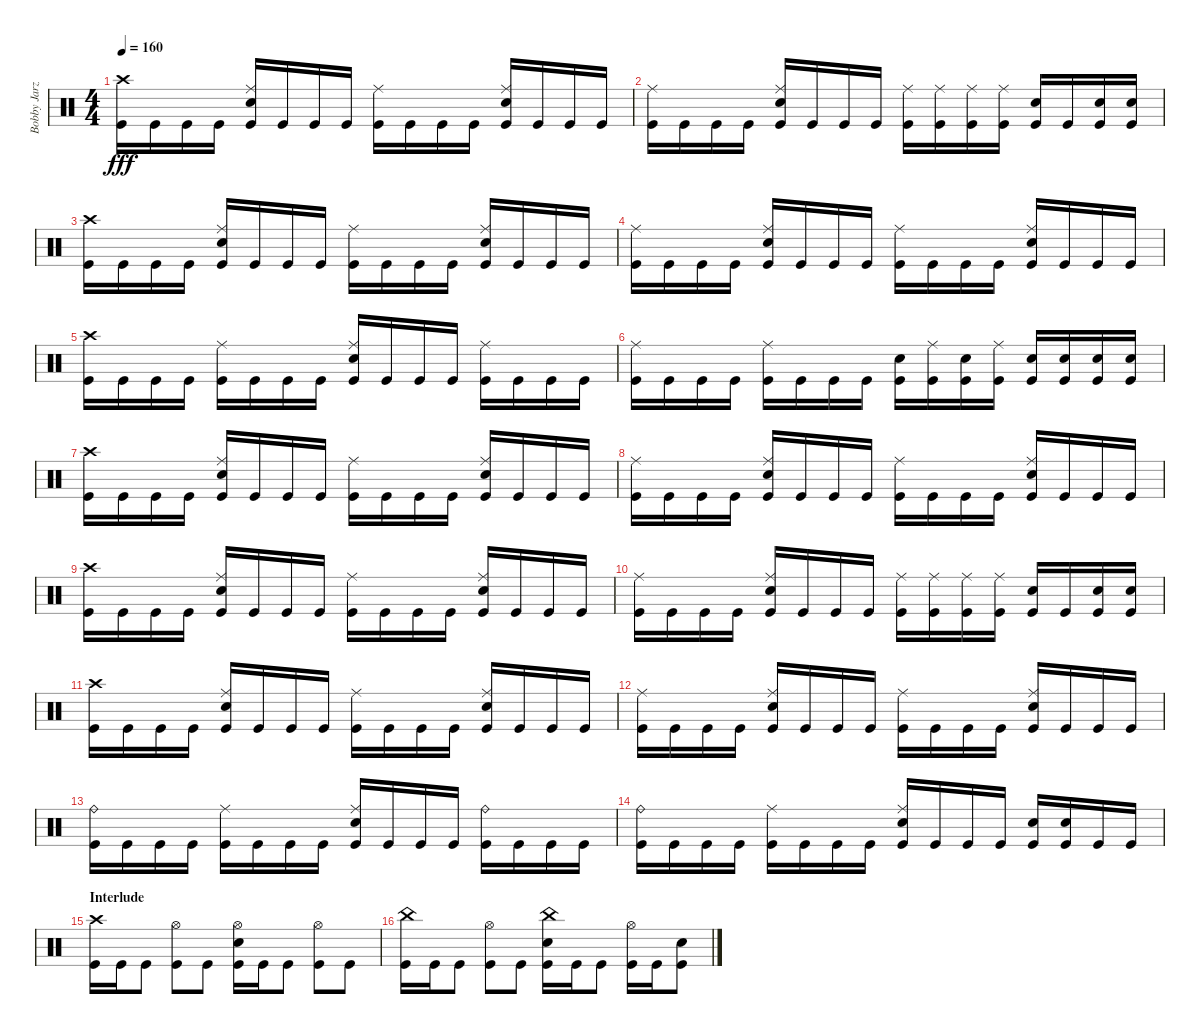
\track ("Bobby Jarzombek" "Bobby Jarz") {instrument percussion}
\staff {score}
\articulation defaults
\ts (4 4)
\tempo 160
\clef neutral
\ks c
("Crash high (hit)" "Kick (hit)").16{dy fff} "Kick (hit)".16 "Kick (hit)".16 "Kick (hit)".16 ("Ride (middle)" "Electric Snare (hit)" "Kick (hit)").16 "Kick (hit)".16 "Kick (hit)".16 "Kick (hit)".16 ("Ride (middle)" "Kick (hit)").16 "Kick (hit)".16 "Kick (hit)".16 "Kick (hit)".16 ("Ride (middle)" "Electric Snare (hit)" "Kick (hit)").16 "Kick (hit)".16 "Kick (hit)".16 "Kick (hit)".16 |
("Ride (middle)" "Kick (hit)").16 "Kick (hit)".16 "Kick (hit)".16 "Kick (hit)".16 ("Ride (middle)" "Electric Snare (hit)" "Kick (hit)").16 "Kick (hit)".16 "Kick (hit)".16 "Kick (hit)".16 ("Ride (middle)" "Kick (hit)").16 ("Ride (middle)" "Kick (hit)").16 ("Ride (middle)" "Kick (hit)").16 ("Ride (middle)" "Kick (hit)").16 ("Electric Snare (hit)" "Kick (hit)").16 "Kick (hit)".16 ("Electric Snare (hit)" "Kick (hit)").16 ("Electric Snare (hit)" "Kick (hit)").16 |
("Crash high (hit)" "Kick (hit)").16 "Kick (hit)".16 "Kick (hit)".16 "Kick (hit)".16 ("Ride (middle)" "Electric Snare (hit)" "Kick (hit)").16 "Kick (hit)".16 "Kick (hit)".16 "Kick (hit)".16 ("Ride (middle)" "Kick (hit)").16 "Kick (hit)".16 "Kick (hit)".16 "Kick (hit)".16 ("Ride (middle)" "Electric Snare (hit)" "Kick (hit)").16 "Kick (hit)".16 "Kick (hit)".16 "Kick (hit)".16 |
("Ride (middle)" "Kick (hit)").16 "Kick (hit)".16 "Kick (hit)".16 "Kick (hit)".16 ("Ride (middle)" "Electric Snare (hit)" "Kick (hit)").16 "Kick (hit)".16 "Kick (hit)".16 "Kick (hit)".16 ("Ride (middle)" "Kick (hit)").16 "Kick (hit)".16 "Kick (hit)".16 "Kick (hit)".16 ("Ride (middle)" "Electric Snare (hit)" "Kick (hit)").16 "Kick (hit)".16 "Kick (hit)".16 "Kick (hit)".16 |
("Crash high (hit)" "Kick (hit)").16 "Kick (hit)".16 "Kick (hit)".16 "Kick (hit)".16 ("Ride (middle)" "Kick (hit)").16 "Kick (hit)".16 "Kick (hit)".16 "Kick (hit)".16 ("Ride (middle)" "Electric Snare (hit)" "Kick (hit)").16 "Kick (hit)".16 "Kick (hit)".16 "Kick (hit)".16 ("Ride (middle)" "Kick (hit)").16 "Kick (hit)".16 "Kick (hit)".16 "Kick (hit)".16 |
("Ride (middle)" "Kick (hit)").16 "Kick (hit)".16 "Kick (hit)".16 "Kick (hit)".16 ("Ride (middle)" "Kick (hit)").16 "Kick (hit)".16 "Kick (hit)".16 "Kick (hit)".16 ("Electric Snare (hit)" "Kick (hit)").16 ("Ride (middle)" "Kick (hit)").16 ("Electric Snare (hit)" "Kick (hit)").16 ("Ride (middle)" "Kick (hit)").16 ("Electric Snare (hit)" "Kick (hit)").16 ("Electric Snare (hit)" "Kick (hit)").16 ("Electric Snare (hit)" "Kick (hit)").16 ("Electric Snare (hit)" "Kick (hit)").16 |
("Crash high (hit)" "Kick (hit)").16 "Kick (hit)".16 "Kick (hit)".16 "Kick (hit)".16 ("Ride (middle)" "Electric Snare (hit)" "Kick (hit)").16 "Kick (hit)".16 "Kick (hit)".16 "Kick (hit)".16 ("Ride (middle)" "Kick (hit)").16 "Kick (hit)".16 "Kick (hit)".16 "Kick (hit)".16 ("Ride (middle)" "Electric Snare (hit)" "Kick (hit)").16 "Kick (hit)".16 "Kick (hit)".16 "Kick (hit)".16 |
("Ride (middle)" "Kick (hit)").16 "Kick (hit)".16 "Kick (hit)".16 "Kick (hit)".16 ("Ride (middle)" "Electric Snare (hit)" "Kick (hit)").16 "Kick (hit)".16 "Kick (hit)".16 "Kick (hit)".16 ("Ride (middle)" "Kick (hit)").16 "Kick (hit)".16 "Kick (hit)".16 "Kick (hit)".16 ("Ride (middle)" "Electric Snare (hit)" "Kick (hit)").16 "Kick (hit)".16 "Kick (hit)".16 "Kick (hit)".16 |
("Crash high (hit)" "Kick (hit)").16 "Kick (hit)".16 "Kick (hit)".16 "Kick (hit)".16 ("Ride (middle)" "Electric Snare (hit)" "Kick (hit)").16 "Kick (hit)".16 "Kick (hit)".16 "Kick (hit)".16 ("Ride (middle)" "Kick (hit)").16 "Kick (hit)".16 "Kick (hit)".16 "Kick (hit)".16 ("Ride (middle)" "Electric Snare (hit)" "Kick (hit)").16 "Kick (hit)".16 "Kick (hit)".16 "Kick (hit)".16 |
("Ride (middle)" "Kick (hit)").16 "Kick (hit)".16 "Kick (hit)".16 "Kick (hit)".16 ("Ride (middle)" "Electric Snare (hit)" "Kick (hit)").16 "Kick (hit)".16 "Kick (hit)".16 "Kick (hit)".16 ("Ride (middle)" "Kick (hit)").16 ("Ride (middle)" "Kick (hit)").16 ("Ride (middle)" "Kick (hit)").16 ("Ride (middle)" "Kick (hit)").16 ("Electric Snare (hit)" "Kick (hit)").16 "Kick (hit)".16 ("Electric Snare (hit)" "Kick (hit)").16 ("Electric Snare (hit)" "Kick (hit)").16 |
("Crash high (hit)" "Kick (hit)").16 "Kick (hit)".16 "Kick (hit)".16 "Kick (hit)".16 ("Ride (middle)" "Electric Snare (hit)" "Kick (hit)").16 "Kick (hit)".16 "Kick (hit)".16 "Kick (hit)".16 ("Ride (middle)" "Kick (hit)").16 "Kick (hit)".16 "Kick (hit)".16 "Kick (hit)".16 ("Ride (middle)" "Electric Snare (hit)" "Kick (hit)").16 "Kick (hit)".16 "Kick (hit)".16 "Kick (hit)".16 |
("Ride (middle)" "Kick (hit)").16 "Kick (hit)".16 "Kick (hit)".16 "Kick (hit)".16 ("Ride (middle)" "Electric Snare (hit)" "Kick (hit)").16 "Kick (hit)".16 "Kick (hit)".16 "Kick (hit)".16 ("Ride (middle)" "Kick (hit)").16 "Kick (hit)".16 "Kick (hit)".16 "Kick (hit)".16 ("Ride (middle)" "Electric Snare (hit)" "Kick (hit)").16 "Kick (hit)".16 "Kick (hit)".16 "Kick (hit)".16 |
("Ride (bell)" "Kick (hit)").16 "Kick (hit)".16 "Kick (hit)".16 "Kick (hit)".16 ("Ride (middle)" "Kick (hit)").16 "Kick (hit)".16 "Kick (hit)".16 "Kick (hit)".16 ("Ride (middle)" "Electric Snare (hit)" "Kick (hit)").16 "Kick (hit)".16 "Kick (hit)".16 "Kick (hit)".16 ("Ride (bell)" "Kick (hit)").16 "Kick (hit)".16 "Kick (hit)".16 "Kick (hit)".16 |
("Ride (bell)" "Kick (hit)").16 "Kick (hit)".16 "Kick (hit)".16 "Kick (hit)".16 ("Ride (middle)" "Kick (hit)").16 "Kick (hit)".16 "Kick (hit)".16 "Kick (hit)".16 ("Ride (middle)" "Electric Snare (hit)" "Kick (hit)").16 "Kick (hit)".16 "Kick (hit)".16 "Kick (hit)".16 ("Electric Snare (hit)" "Kick (hit)").16 ("Electric Snare (hit)" "Kick (hit)").16 "Kick (hit)".16 "Kick (hit)".16 |
\section ("" "Interlude")
("Crash high (hit)" "Kick (hit)").16 "Kick (hit)".16 "Kick (hit)".8 ("Hi-Hat (open)" "Kick (hit)").8 "Kick (hit)".8 ("Hi-Hat (open)" "Electric Snare (hit)" "Kick (hit)").16 "Kick (hit)".16 "Kick (hit)".8 ("Hi-Hat (open)" "Kick (hit)").8 "Kick (hit)".8 |
("China (hit)" "Kick (hit)").16 "Kick (hit)".16 "Kick (hit)".8 ("Hi-Hat (open)" "Kick (hit)").8 "Kick (hit)".8 ("China (hit)" "Electric Snare (hit)" "Kick (hit)").16 "Kick (hit)".16 "Kick (hit)".8 ("Hi-Hat (open)" "Kick (hit)").16 "Kick (hit)".16 ("Electric Snare (hit)" "Kick (hit)").8
